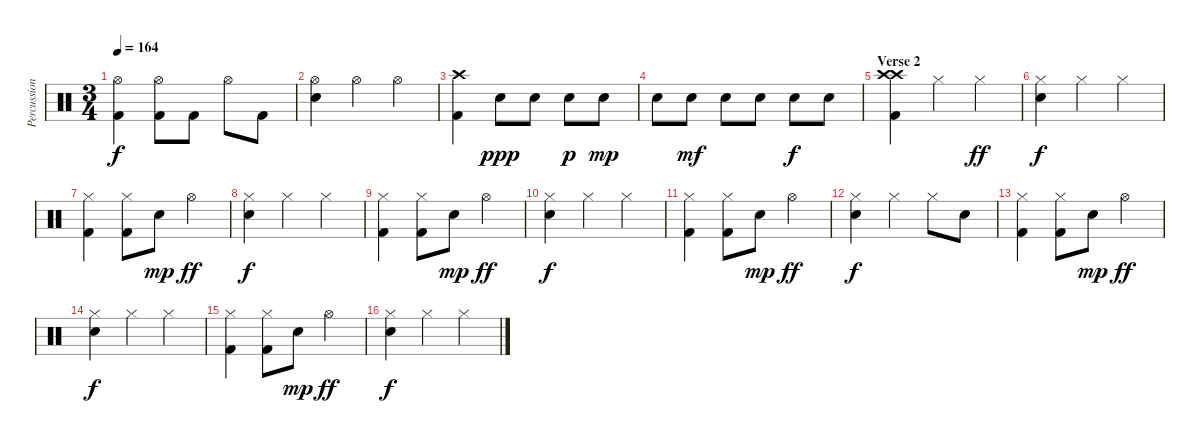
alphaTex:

\track ("Percussion" "Percussion") {instrument percussion}
\staff {score}
\articulation defaults
\ts (3 4)
\tempo 164
\clef neutral
\ks c
("Hi-Hat (open)" "Kick (hit) 2").4{dy f} ("Hi-Hat (open)" "Kick (hit) 2").8 "Kick (hit) 2".8 "Hi-Hat (open)".8 "Kick (hit) 2".8 |
("Hi-Hat (open)" "Snare (hit) 2").4 "Hi-Hat (open)".4 "Hi-Hat (open)".4 |
("Crash high (hit)" "Kick (hit) 2").4 "Snare (hit) 2".8{dy ppp} "Snare (hit) 2".8 "Snare (hit) 2".8{dy p} "Snare (hit) 2".8{dy mp} |
"Snare (hit) 2".8 "Snare (hit) 2".8{dy mf} "Snare (hit) 2".8 "Snare (hit) 2".8 "Snare (hit) 2".8{dy f} "Snare (hit) 2".8 |
\section ("" "Verse 2")
("Crash high (hit)" "Crash high (hit)" "Kick (hit) 2").4 "Hi-Hat (closed)".4 "Hi-Hat (closed)".4{dy ff} |
("Hi-Hat (closed)" "Snare (hit) 2").4{dy f} "Hi-Hat (closed)".4 "Hi-Hat (closed)".4 |
("Hi-Hat (closed)" "Kick (hit) 2").4 ("Hi-Hat (closed)" "Kick (hit) 2").8 "Snare (hit) 2".8{dy mp} "Hi-Hat (open)".4{dy ff} |
("Hi-Hat (closed)" "Snare (hit) 2").4{dy f} "Hi-Hat (closed)".4 "Hi-Hat (closed)".4 |
("Hi-Hat (closed)" "Kick (hit) 2").4 ("Hi-Hat (closed)" "Kick (hit) 2").8 "Snare (hit) 2".8{dy mp} "Hi-Hat (open)".4{dy ff} |
("Hi-Hat (closed)" "Snare (hit) 2").4{dy f} "Hi-Hat (closed)".4 "Hi-Hat (closed)".4 |
("Hi-Hat (closed)" "Kick (hit) 2").4 ("Hi-Hat (closed)" "Kick (hit) 2").8 "Snare (hit) 2".8{dy mp} "Hi-Hat (open)".4{dy ff} |
("Hi-Hat (closed)" "Snare (hit) 2").4{dy f} "Hi-Hat (closed)".4 "Hi-Hat (closed)".8 "Snare (hit) 2".8 |
("Hi-Hat (closed)" "Kick (hit) 2").4 ("Hi-Hat (closed)" "Kick (hit) 2").8 "Snare (hit) 2".8{dy mp} "Hi-Hat (open)".4{dy ff} |
("Hi-Hat (closed)" "Snare (hit) 2").4{dy f} "Hi-Hat (closed)".4 "Hi-Hat (closed)".4 |
("Hi-Hat (closed)" "Kick (hit) 2").4 ("Hi-Hat (closed)" "Kick (hit) 2").8 "Snare (hit) 2".8{dy mp} "Hi-Hat (open)".4{dy ff} |
("Hi-Hat (closed)" "Snare (hit) 2").4{dy f} "Hi-Hat (closed)".4 "Hi-Hat (closed)".4
